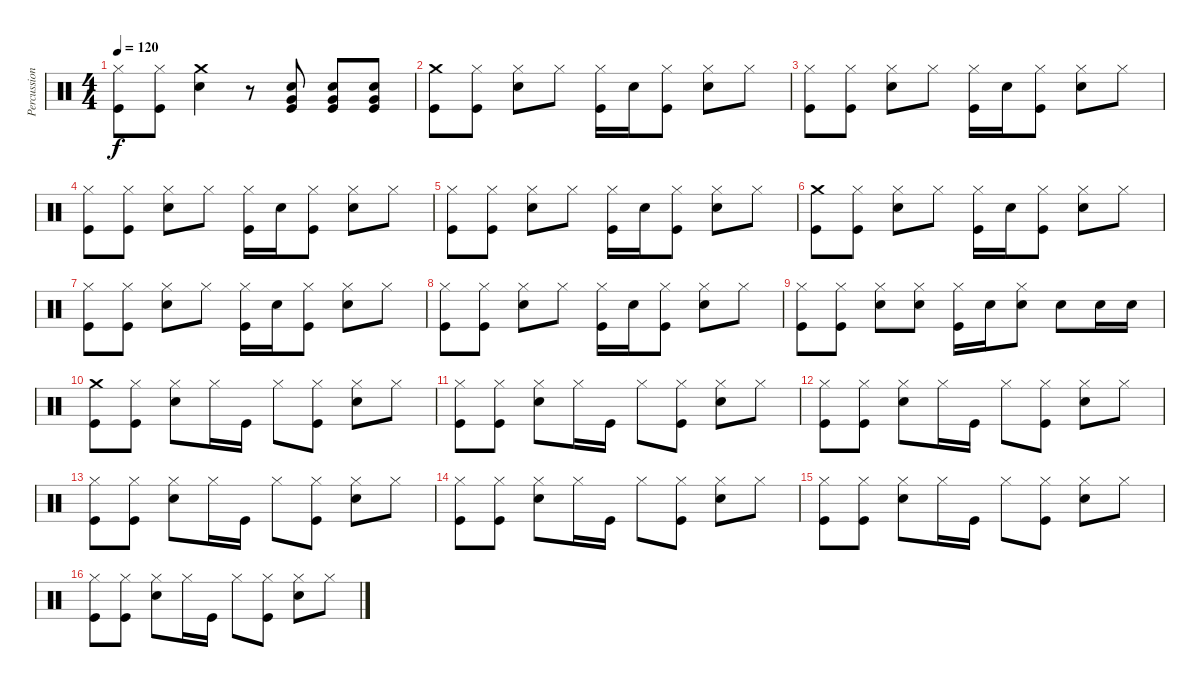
\track ("Percussion" "Percussion") {instrument percussion}
\staff {score}
\articulation defaults
\ts (4 4)
\tempo 120
\clef neutral
\ks c
("Hi-Hat (closed)" "Kick (hit)").8{dy f} ("Hi-Hat (closed)" "Kick (hit)").8 ("Crash medium (hit)" "Electric Snare (hit)").4 r.8 ("Very Low Tom (hit)" "Electric Snare (hit)" "Kick (hit)").8 ("Very Low Tom (hit)" "Electric Snare (hit)" "Kick (hit)").8 ("Very Low Tom (hit)" "Electric Snare (hit)" "Kick (hit)").8 |
("Crash medium (hit)" "Kick (hit)").8 ("Hi-Hat (closed)" "Kick (hit)").8 ("Hi-Hat (closed)" "Electric Snare (hit)").8 "Hi-Hat (closed)".8 ("Hi-Hat (closed)" "Kick (hit)").16 "Electric Snare (hit)".16 ("Hi-Hat (closed)" "Kick (hit)").8 ("Hi-Hat (closed)" "Electric Snare (hit)").8 "Hi-Hat (closed)".8 |
("Hi-Hat (closed)" "Kick (hit)").8 ("Hi-Hat (closed)" "Kick (hit)").8 ("Hi-Hat (closed)" "Electric Snare (hit)").8 "Hi-Hat (closed)".8 ("Hi-Hat (closed)" "Kick (hit)").16 "Electric Snare (hit)".16 ("Hi-Hat (closed)" "Kick (hit)").8 ("Hi-Hat (closed)" "Electric Snare (hit)").8 "Hi-Hat (closed)".8 |
("Hi-Hat (closed)" "Kick (hit)").8 ("Hi-Hat (closed)" "Kick (hit)").8 ("Hi-Hat (closed)" "Electric Snare (hit)").8 "Hi-Hat (closed)".8 ("Hi-Hat (closed)" "Kick (hit)").16 "Electric Snare (hit)".16 ("Hi-Hat (closed)" "Kick (hit)").8 ("Hi-Hat (closed)" "Electric Snare (hit)").8 "Hi-Hat (closed)".8 |
("Hi-Hat (closed)" "Kick (hit)").8 ("Hi-Hat (closed)" "Kick (hit)").8 ("Hi-Hat (closed)" "Electric Snare (hit)").8 "Hi-Hat (closed)".8 ("Hi-Hat (closed)" "Kick (hit)").16 "Electric Snare (hit)".16 ("Hi-Hat (closed)" "Kick (hit)").8 ("Hi-Hat (closed)" "Electric Snare (hit)").8 "Hi-Hat (closed)".8 |
("Crash medium (hit)" "Kick (hit)").8 ("Hi-Hat (closed)" "Kick (hit)").8 ("Hi-Hat (closed)" "Electric Snare (hit)").8 "Hi-Hat (closed)".8 ("Hi-Hat (closed)" "Kick (hit)").16 "Electric Snare (hit)".16 ("Hi-Hat (closed)" "Kick (hit)").8 ("Hi-Hat (closed)" "Electric Snare (hit)").8 "Hi-Hat (closed)".8 |
("Hi-Hat (closed)" "Kick (hit)").8 ("Hi-Hat (closed)" "Kick (hit)").8 ("Hi-Hat (closed)" "Electric Snare (hit)").8 "Hi-Hat (closed)".8 ("Hi-Hat (closed)" "Kick (hit)").16 "Electric Snare (hit)".16 ("Hi-Hat (closed)" "Kick (hit)").8 ("Hi-Hat (closed)" "Electric Snare (hit)").8 "Hi-Hat (closed)".8 |
("Hi-Hat (closed)" "Kick (hit)").8 ("Hi-Hat (closed)" "Kick (hit)").8 ("Hi-Hat (closed)" "Electric Snare (hit)").8 "Hi-Hat (closed)".8 ("Hi-Hat (closed)" "Kick (hit)").16 "Electric Snare (hit)".16 ("Hi-Hat (closed)" "Kick (hit)").8 ("Hi-Hat (closed)" "Electric Snare (hit)").8 "Hi-Hat (closed)".8 |
("Hi-Hat (closed)" "Kick (hit)").8 ("Hi-Hat (closed)" "Kick (hit)").8 ("Hi-Hat (closed)" "Electric Snare (hit)").8 ("Hi-Hat (closed)" "Electric Snare (hit)").8 ("Hi-Hat (closed)" "Kick (hit)").16 "Electric Snare (hit)".16 ("Hi-Hat (closed)" "Electric Snare (hit)").8 "Electric Snare (hit)".8 "Electric Snare (hit)".16 "Electric Snare (hit)".16 |
("Crash medium (hit)" "Kick (hit)").8 ("Hi-Hat (closed)" "Kick (hit)").8 ("Hi-Hat (closed)" "Electric Snare (hit)").8 "Hi-Hat (closed)".16 "Kick (hit)".16 "Hi-Hat (closed)".8 ("Hi-Hat (closed)" "Kick (hit)").8 ("Hi-Hat (closed)" "Electric Snare (hit)").8 "Hi-Hat (closed)".8 |
("Hi-Hat (closed)" "Kick (hit)").8 ("Hi-Hat (closed)" "Kick (hit)").8 ("Hi-Hat (closed)" "Electric Snare (hit)").8 "Hi-Hat (closed)".16 "Kick (hit)".16 "Hi-Hat (closed)".8 ("Hi-Hat (closed)" "Kick (hit)").8 ("Hi-Hat (closed)" "Electric Snare (hit)").8 "Hi-Hat (closed)".8 |
("Hi-Hat (closed)" "Kick (hit)").8 ("Hi-Hat (closed)" "Kick (hit)").8 ("Hi-Hat (closed)" "Electric Snare (hit)").8 "Hi-Hat (closed)".16 "Kick (hit)".16 "Hi-Hat (closed)".8 ("Hi-Hat (closed)" "Kick (hit)").8 ("Hi-Hat (closed)" "Electric Snare (hit)").8 "Hi-Hat (closed)".8 |
("Hi-Hat (closed)" "Kick (hit)").8 ("Hi-Hat (closed)" "Kick (hit)").8 ("Hi-Hat (closed)" "Electric Snare (hit)").8 "Hi-Hat (closed)".16 "Kick (hit)".16 "Hi-Hat (closed)".8 ("Hi-Hat (closed)" "Kick (hit)").8 ("Hi-Hat (closed)" "Electric Snare (hit)").8 "Hi-Hat (closed)".8 |
("Hi-Hat (closed)" "Kick (hit)").8 ("Hi-Hat (closed)" "Kick (hit)").8 ("Hi-Hat (closed)" "Electric Snare (hit)").8 "Hi-Hat (closed)".16 "Kick (hit)".16 "Hi-Hat (closed)".8 ("Hi-Hat (closed)" "Kick (hit)").8 ("Hi-Hat (closed)" "Electric Snare (hit)").8 "Hi-Hat (closed)".8 |
("Hi-Hat (closed)" "Kick (hit)").8 ("Hi-Hat (closed)" "Kick (hit)").8 ("Hi-Hat (closed)" "Electric Snare (hit)").8 "Hi-Hat (closed)".16 "Kick (hit)".16 "Hi-Hat (closed)".8 ("Hi-Hat (closed)" "Kick (hit)").8 ("Hi-Hat (closed)" "Electric Snare (hit)").8 "Hi-Hat (closed)".8 |
("Hi-Hat (closed)" "Kick (hit)").8 ("Hi-Hat (closed)" "Kick (hit)").8 ("Hi-Hat (closed)" "Electric Snare (hit)").8 "Hi-Hat (closed)".16 "Kick (hit)".16 "Hi-Hat (closed)".8 ("Hi-Hat (closed)" "Kick (hit)").8 ("Hi-Hat (closed)" "Electric Snare (hit)").8 "Hi-Hat (closed)".8
